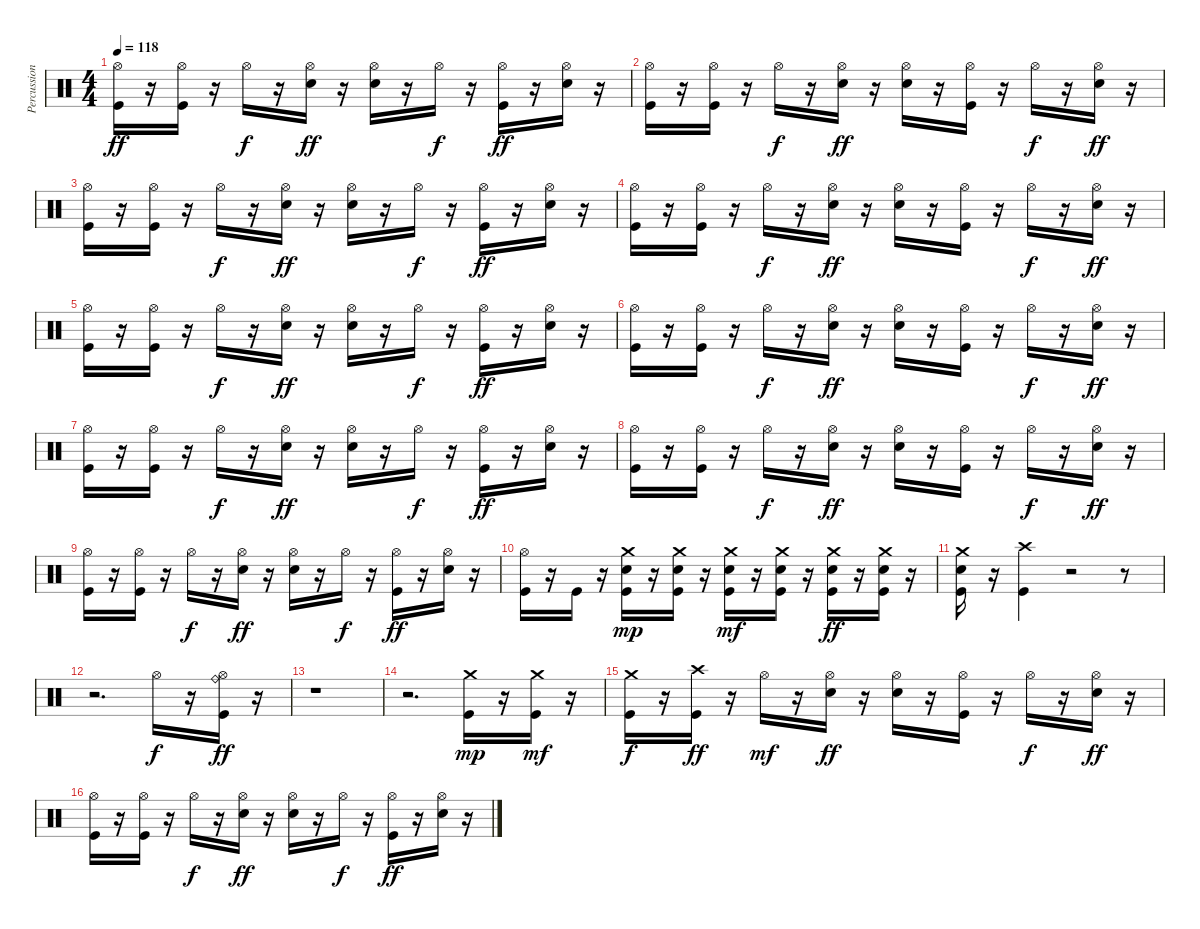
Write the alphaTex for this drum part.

\track ("Percussion" "Percussion") {instrument percussion}
\staff {score}
\articulation defaults
\ts (4 4)
\tempo 118
\clef neutral
\ks c
("Hi-Hat (open)" "Kick (hit)").16{dy ff} r.16 ("Kick (hit)" "Hi-Hat (open)").16 r.16 "Hi-Hat (open)".16{dy f} r.16 ("Hi-Hat (open)" "Snare (hit) 2").16{dy ff} r.16 ("Hi-Hat (open)" "Snare (hit) 2").16 r.16 "Hi-Hat (open)".16{dy f} r.16 ("Hi-Hat (open)" "Kick (hit)").16{dy ff} r.16 ("Hi-Hat (open)" "Snare (hit) 2").16 r.16 |
("Hi-Hat (open)" "Kick (hit)").16 r.16 ("Kick (hit)" "Hi-Hat (open)").16 r.16 "Hi-Hat (open)".16{dy f} r.16 ("Hi-Hat (open)" "Snare (hit) 2").16{dy ff} r.16 ("Hi-Hat (open)" "Snare (hit) 2").16 r.16 ("Hi-Hat (open)" "Kick (hit)").16 r.16 "Hi-Hat (open)".16{dy f} r.16 ("Hi-Hat (open)" "Snare (hit) 2").16{dy ff} r.16 |
("Hi-Hat (open)" "Kick (hit)").16 r.16 ("Kick (hit)" "Hi-Hat (open)").16 r.16 "Hi-Hat (open)".16{dy f} r.16 ("Hi-Hat (open)" "Snare (hit) 2").16{dy ff} r.16 ("Hi-Hat (open)" "Snare (hit) 2").16 r.16 "Hi-Hat (open)".16{dy f} r.16 ("Hi-Hat (open)" "Kick (hit)").16{dy ff} r.16 ("Hi-Hat (open)" "Snare (hit) 2").16 r.16 |
("Hi-Hat (open)" "Kick (hit)").16 r.16 ("Kick (hit)" "Hi-Hat (open)").16 r.16 "Hi-Hat (open)".16{dy f} r.16 ("Hi-Hat (open)" "Snare (hit) 2").16{dy ff} r.16 ("Hi-Hat (open)" "Snare (hit) 2").16 r.16 ("Hi-Hat (open)" "Kick (hit)").16 r.16 "Hi-Hat (open)".16{dy f} r.16 ("Hi-Hat (open)" "Snare (hit) 2").16{dy ff} r.16 |
("Hi-Hat (open)" "Kick (hit)").16 r.16 ("Kick (hit)" "Hi-Hat (open)").16 r.16 "Hi-Hat (open)".16{dy f} r.16 ("Hi-Hat (open)" "Snare (hit) 2").16{dy ff} r.16 ("Hi-Hat (open)" "Snare (hit) 2").16 r.16 "Hi-Hat (open)".16{dy f} r.16 ("Hi-Hat (open)" "Kick (hit)").16{dy ff} r.16 ("Hi-Hat (open)" "Snare (hit) 2").16 r.16 |
("Hi-Hat (open)" "Kick (hit)").16 r.16 ("Kick (hit)" "Hi-Hat (open)").16 r.16 "Hi-Hat (open)".16{dy f} r.16 ("Hi-Hat (open)" "Snare (hit) 2").16{dy ff} r.16 ("Hi-Hat (open)" "Snare (hit) 2").16 r.16 ("Hi-Hat (open)" "Kick (hit)").16 r.16 "Hi-Hat (open)".16{dy f} r.16 ("Hi-Hat (open)" "Snare (hit) 2").16{dy ff} r.16 |
("Hi-Hat (open)" "Kick (hit)").16 r.16 ("Kick (hit)" "Hi-Hat (open)").16 r.16 "Hi-Hat (open)".16{dy f} r.16 ("Hi-Hat (open)" "Snare (hit) 2").16{dy ff} r.16 ("Hi-Hat (open)" "Snare (hit) 2").16 r.16 "Hi-Hat (open)".16{dy f} r.16 ("Hi-Hat (open)" "Kick (hit)").16{dy ff} r.16 ("Hi-Hat (open)" "Snare (hit) 2").16 r.16 |
("Hi-Hat (open)" "Kick (hit)").16 r.16 ("Kick (hit)" "Hi-Hat (open)").16 r.16 "Hi-Hat (open)".16{dy f} r.16 ("Hi-Hat (open)" "Snare (hit) 2").16{dy ff} r.16 ("Hi-Hat (open)" "Snare (hit) 2").16 r.16 ("Hi-Hat (open)" "Kick (hit)").16 r.16 "Hi-Hat (open)".16{dy f} r.16 ("Hi-Hat (open)" "Snare (hit) 2").16{dy ff} r.16 |
("Hi-Hat (open)" "Kick (hit)").16 r.16 ("Kick (hit)" "Hi-Hat (open)").16 r.16 "Hi-Hat (open)".16{dy f} r.16 ("Hi-Hat (open)" "Snare (hit) 2").16{dy ff} r.16 ("Hi-Hat (open)" "Snare (hit) 2").16 r.16 "Hi-Hat (open)".16{dy f} r.16 ("Hi-Hat (open)" "Kick (hit)").16{dy ff} r.16 ("Hi-Hat (open)" "Snare (hit) 2").16 r.16 |
("Hi-Hat (open)" "Kick (hit)").16 r.16 "Kick (hit)".16 r.16 ("Electric Snare (hit)" "Kick (hit)" "Crash medium (hit)").16{dy mp} r.16 ("Electric Snare (hit)" "Kick (hit)" "Crash medium (hit)").16 r.16 ("Electric Snare (hit)" "Kick (hit)" "Crash medium (hit)").16{dy mf} r.16 ("Electric Snare (hit)" "Kick (hit)" "Crash medium (hit)").16 r.16 ("Electric Snare (hit)" "Kick (hit)" "Crash medium (hit)").16{dy ff} r.16 ("Electric Snare (hit)" "Kick (hit)" "Crash medium (hit)").16 r.16 |
("Electric Snare (hit)" "Kick (hit)" "Crash medium (hit)").16 r.16 ("Crash high (hit)" "Kick (hit)").4 r.2 r.8 |
r.2{d} "Hi-Hat (open)".16{dy f} r.16 ("Ride (bell)" "Kick (hit)" "Hi-Hat (open)").16{dy ff} r.16 |
r.1 |
r.2{d} ("Crash medium (hit)" "Kick (hit)").16{dy mp} r.16 ("Kick (hit)" "Crash medium (hit)").16{dy mf} r.16 |
("Kick (hit)" "Crash medium (hit)").16{dy f} r.16 ("Kick (hit)" "Crash high (hit)").16{dy ff} r.16 "Hi-Hat (open)".16{dy mf} r.16 ("Hi-Hat (open)" "Snare (hit) 2").16{dy ff} r.16 ("Hi-Hat (open)" "Snare (hit) 2").16 r.16 ("Hi-Hat (open)" "Kick (hit)").16 r.16 "Hi-Hat (open)".16{dy f} r.16 ("Hi-Hat (open)" "Snare (hit) 2").16{dy ff} r.16 |
("Hi-Hat (open)" "Kick (hit)").16 r.16 ("Kick (hit)" "Hi-Hat (open)").16 r.16 "Hi-Hat (open)".16{dy f} r.16 ("Hi-Hat (open)" "Snare (hit) 2").16{dy ff} r.16 ("Hi-Hat (open)" "Snare (hit) 2").16 r.16 "Hi-Hat (open)".16{dy f} r.16 ("Hi-Hat (open)" "Kick (hit)").16{dy ff} r.16 ("Hi-Hat (open)" "Snare (hit) 2").16 r.16
